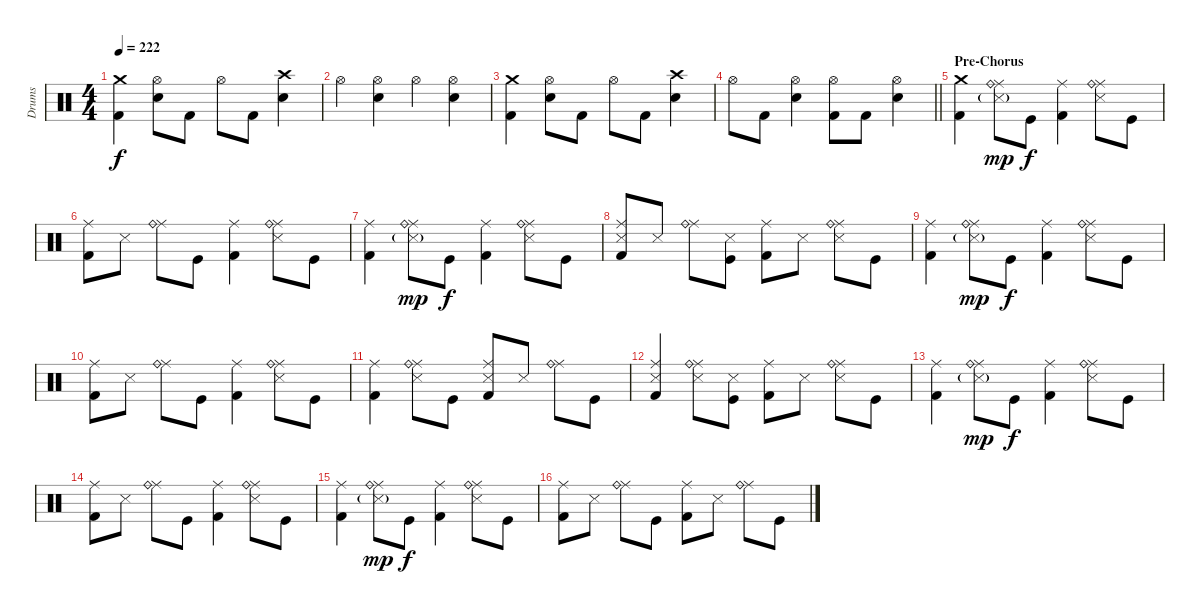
\track ("Drums" "Drums") {instrument percussion}
\staff {score}
\articulation defaults
\ts (4 4)
\tempo 222
\clef neutral
\ks c
("Crash medium (hit)" "Kick (hit) 2").4{dy f} ("Hi-Hat (open)" "Electric Snare (hit)").8 "Kick (hit) 2".8 "Hi-Hat (open)".8 "Kick (hit) 2".8 ("Crash high (hit)" "Electric Snare (hit)").4 |
"Hi-Hat (open)".4 ("Hi-Hat (open)" "Electric Snare (hit)").4 "Hi-Hat (open)".4 ("Hi-Hat (open)" "Electric Snare (hit)").4 |
("Crash medium (hit)" "Kick (hit) 2").4 ("Hi-Hat (open)" "Electric Snare (hit)").8 "Kick (hit) 2".8 "Hi-Hat (open)".8 "Kick (hit) 2".8 ("Crash high (hit)" "Electric Snare (hit)").4 |
\barLineRight lightlight "Hi-Hat (open)".8 "Kick (hit) 2".8
("Hi-Hat (open)" "Electric Snare (hit)").4 ("Hi-Hat (open)" "Kick (hit) 2").8 "Kick (hit) 2".8 ("Hi-Hat (open)" "Electric Snare (hit)").4 |
\section ("" "Pre-Chorus")
("Crash medium (hit)" "Kick (hit) 2").4 ("Ride (middle)" "Ride (bell)" "Snare (side stick) 3"{g}).8{dy mp} "Kick (hit)".8{dy f} ("Ride (middle)" "Kick (hit) 2").4 ("Ride (middle)" "Ride (bell)" "Snare (side stick) 3").8 "Kick (hit)".8 |
("Ride (middle)" "Kick (hit) 2").8 "Snare (side stick) 3".8 ("Ride (middle)" "Ride (bell)").8 "Kick (hit)".8 ("Ride (middle)" "Kick (hit) 2").4 ("Ride (middle)" "Ride (bell)" "Snare (side stick) 3").8 "Kick (hit)".8 |
("Ride (middle)" "Kick (hit) 2").4 ("Ride (middle)" "Ride (bell)" "Snare (side stick) 3"{g}).8{dy mp} "Kick (hit)".8{dy f} ("Ride (middle)" "Kick (hit) 2").4 ("Ride (middle)" "Ride (bell)" "Snare (side stick) 3").8 "Kick (hit)".8 |
("Ride (middle)" "Snare (side stick) 3" "Kick (hit) 2").8 "Snare (side stick) 3".8 ("Ride (middle)" "Ride (bell)").8 ("Snare (side stick) 3" "Kick (hit)").8 ("Ride (middle)" "Kick (hit) 2").8 "Snare (side stick) 3".8 ("Ride (middle)" "Ride (bell)" "Snare (side stick) 3").8 "Kick (hit)".8 |
("Ride (middle)" "Kick (hit) 2").4 ("Ride (middle)" "Ride (bell)" "Snare (side stick) 3"{g}).8{dy mp} "Kick (hit)".8{dy f} ("Ride (middle)" "Kick (hit) 2").4 ("Ride (middle)" "Ride (bell)" "Snare (side stick) 3").8 "Kick (hit)".8 |
("Ride (middle)" "Kick (hit) 2").8 "Snare (side stick) 3".8 ("Ride (middle)" "Ride (bell)").8 "Kick (hit)".8 ("Ride (middle)" "Kick (hit) 2").4 ("Ride (middle)" "Ride (bell)" "Snare (side stick) 3").8 "Kick (hit)".8 |
("Ride (middle)" "Kick (hit) 2").4 ("Ride (middle)" "Ride (bell)" "Snare (side stick) 3").8 "Kick (hit)".8 ("Ride (middle)" "Snare (side stick) 3" "Kick (hit) 2").8 "Snare (side stick) 3".8 ("Ride (middle)" "Ride (bell)").8 "Kick (hit)".8 |
("Ride (middle)" "Snare (side stick) 3" "Kick (hit) 2").4 ("Ride (middle)" "Ride (bell)" "Snare (side stick) 3").8 ("Snare (side stick) 3" "Kick (hit)").8 ("Ride (middle)" "Kick (hit) 2").8 "Snare (side stick) 3".8 ("Ride (middle)" "Ride (bell)" "Snare (side stick) 3").8 "Kick (hit)".8 |
("Ride (middle)" "Kick (hit) 2").4 ("Ride (middle)" "Ride (bell)" "Snare (side stick) 3"{g}).8{dy mp} "Kick (hit)".8{dy f} ("Ride (middle)" "Kick (hit) 2").4 ("Ride (middle)" "Ride (bell)" "Snare (side stick) 3").8 "Kick (hit)".8 |
("Ride (middle)" "Kick (hit) 2").8 "Snare (side stick) 3".8 ("Ride (middle)" "Ride (bell)").8 "Kick (hit)".8 ("Ride (middle)" "Kick (hit) 2").4 ("Ride (middle)" "Ride (bell)" "Snare (side stick) 3").8 "Kick (hit)".8 |
("Ride (middle)" "Kick (hit) 2").4 ("Ride (middle)" "Ride (bell)" "Snare (side stick) 3"{g}).8{dy mp} "Kick (hit)".8{dy f} ("Ride (middle)" "Kick (hit) 2").4 ("Ride (middle)" "Ride (bell)" "Snare (side stick) 3").8 "Kick (hit)".8 |
("Ride (middle)" "Kick (hit) 2").8 "Snare (side stick) 3".8 ("Ride (middle)" "Ride (bell)").8 "Kick (hit)".8 ("Ride (middle)" "Kick (hit) 2").8 "Snare (side stick) 3".8 ("Ride (middle)" "Ride (bell)").8 "Kick (hit)".8
